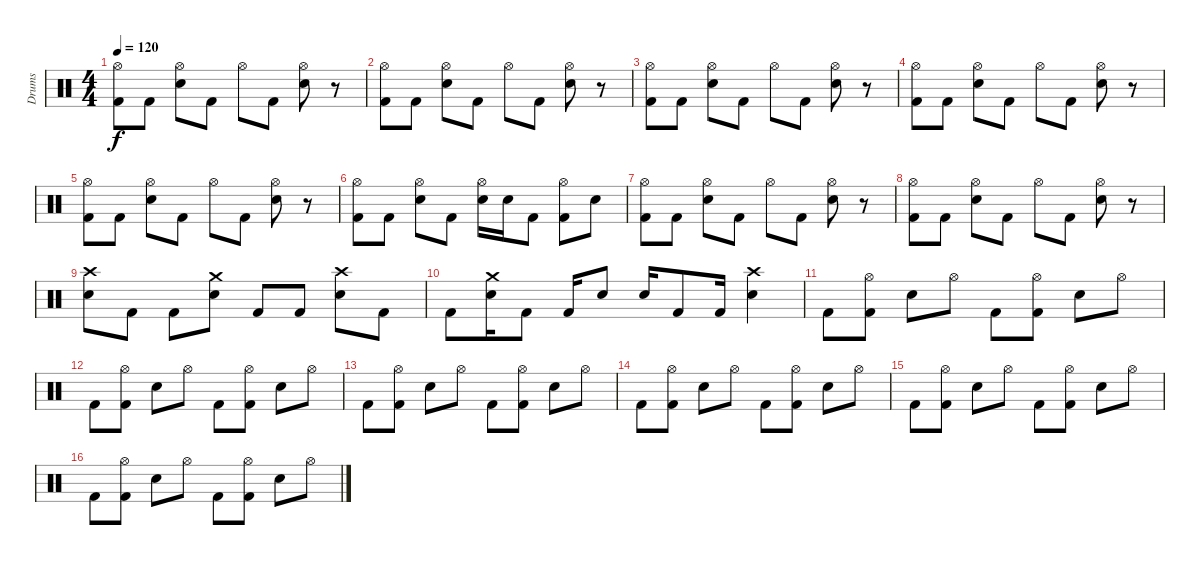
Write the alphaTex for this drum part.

\track ("Drums" "Drums") {instrument percussion}
\staff {score}
\articulation defaults
\ts (4 4)
\tempo 120
\clef neutral
\ks c
("Hi-Hat (open)" "Kick (hit) 2").8{dy f} "Kick (hit) 2".8 ("Hi-Hat (open)" "Electric Snare (hit)").8 "Kick (hit) 2".8 "Hi-Hat (open)".8 "Kick (hit) 2".8 ("Hi-Hat (open)" "Electric Snare (hit)").8 r.8 |
("Hi-Hat (open)" "Kick (hit) 2").8 "Kick (hit) 2".8 ("Hi-Hat (open)" "Electric Snare (hit)").8 "Kick (hit) 2".8 "Hi-Hat (open)".8 "Kick (hit) 2".8 ("Hi-Hat (open)" "Electric Snare (hit)").8 r.8 |
("Hi-Hat (open)" "Kick (hit) 2").8 "Kick (hit) 2".8 ("Hi-Hat (open)" "Electric Snare (hit)").8 "Kick (hit) 2".8 "Hi-Hat (open)".8 "Kick (hit) 2".8 ("Hi-Hat (open)" "Electric Snare (hit)").8 r.8 |
("Hi-Hat (open)" "Kick (hit) 2").8 "Kick (hit) 2".8 ("Hi-Hat (open)" "Electric Snare (hit)").8 "Kick (hit) 2".8 "Hi-Hat (open)".8 "Kick (hit) 2".8 ("Hi-Hat (open)" "Electric Snare (hit)").8 r.8 |
("Hi-Hat (open)" "Kick (hit) 2").8 "Kick (hit) 2".8 ("Hi-Hat (open)" "Electric Snare (hit)").8 "Kick (hit) 2".8 "Hi-Hat (open)".8 "Kick (hit) 2".8 ("Hi-Hat (open)" "Electric Snare (hit)").8 r.8 |
("Hi-Hat (open)" "Kick (hit) 2").8 "Kick (hit) 2".8 ("Hi-Hat (open)" "Electric Snare (hit)").8 "Kick (hit) 2".8 ("Hi-Hat (open)" "Electric Snare (hit)").16 "Electric Snare (hit)".16 "Kick (hit) 2".8 ("Hi-Hat (open)" "Kick (hit) 2").8 "Electric Snare (hit)".8 |
("Hi-Hat (open)" "Kick (hit) 2").8 "Kick (hit) 2".8 ("Hi-Hat (open)" "Electric Snare (hit)").8 "Kick (hit) 2".8 "Hi-Hat (open)".8 "Kick (hit) 2".8 ("Hi-Hat (open)" "Electric Snare (hit)").8 r.8 |
("Hi-Hat (open)" "Kick (hit) 2").8 "Kick (hit) 2".8 ("Hi-Hat (open)" "Electric Snare (hit)").8 "Kick (hit) 2".8 "Hi-Hat (open)".8 "Kick (hit) 2".8 ("Hi-Hat (open)" "Electric Snare (hit)").8 r.8 |
("Crash high (hit)" "Electric Snare (hit)").8 "Kick (hit) 2".8 "Kick (hit) 2".8 ("Crash medium (hit)" "Electric Snare (hit)").8 "Kick (hit) 2".8 "Kick (hit) 2".8 ("Crash high (hit)" "Electric Snare (hit)").8 "Kick (hit) 2".8 |
"Kick (hit) 2".8 ("Crash medium (hit)" "Electric Snare (hit)").16 "Kick (hit) 2".8 "Kick (hit) 2".16 "Electric Snare (hit)".8 "Electric Snare (hit)".16 "Kick (hit) 2".8 "Kick (hit) 2".16 ("Crash high (hit)" "Electric Snare (hit)").4 |
"Kick (hit) 2".8 ("Hi-Hat (open)" "Kick (hit) 2").8 "Electric Snare (hit)".8 "Hi-Hat (open)".8 "Kick (hit) 2".8 ("Hi-Hat (open)" "Kick (hit) 2").8 "Electric Snare (hit)".8 "Hi-Hat (open)".8 |
"Kick (hit) 2".8 ("Hi-Hat (open)" "Kick (hit) 2").8 "Electric Snare (hit)".8 "Hi-Hat (open)".8 "Kick (hit) 2".8 ("Hi-Hat (open)" "Kick (hit) 2").8 "Electric Snare (hit)".8 "Hi-Hat (open)".8 |
"Kick (hit) 2".8 ("Hi-Hat (open)" "Kick (hit) 2").8 "Electric Snare (hit)".8 "Hi-Hat (open)".8 "Kick (hit) 2".8 ("Hi-Hat (open)" "Kick (hit) 2").8 "Electric Snare (hit)".8 "Hi-Hat (open)".8 |
"Kick (hit) 2".8 ("Hi-Hat (open)" "Kick (hit) 2").8 "Electric Snare (hit)".8 "Hi-Hat (open)".8 "Kick (hit) 2".8 ("Hi-Hat (open)" "Kick (hit) 2").8 "Electric Snare (hit)".8 "Hi-Hat (open)".8 |
"Kick (hit) 2".8 ("Hi-Hat (open)" "Kick (hit) 2").8 "Electric Snare (hit)".8 "Hi-Hat (open)".8 "Kick (hit) 2".8 ("Hi-Hat (open)" "Kick (hit) 2").8 "Electric Snare (hit)".8 "Hi-Hat (open)".8 |
"Kick (hit) 2".8 ("Hi-Hat (open)" "Kick (hit) 2").8 "Electric Snare (hit)".8 "Hi-Hat (open)".8 "Kick (hit) 2".8 ("Hi-Hat (open)" "Kick (hit) 2").8 "Electric Snare (hit)".8 "Hi-Hat (open)".8
